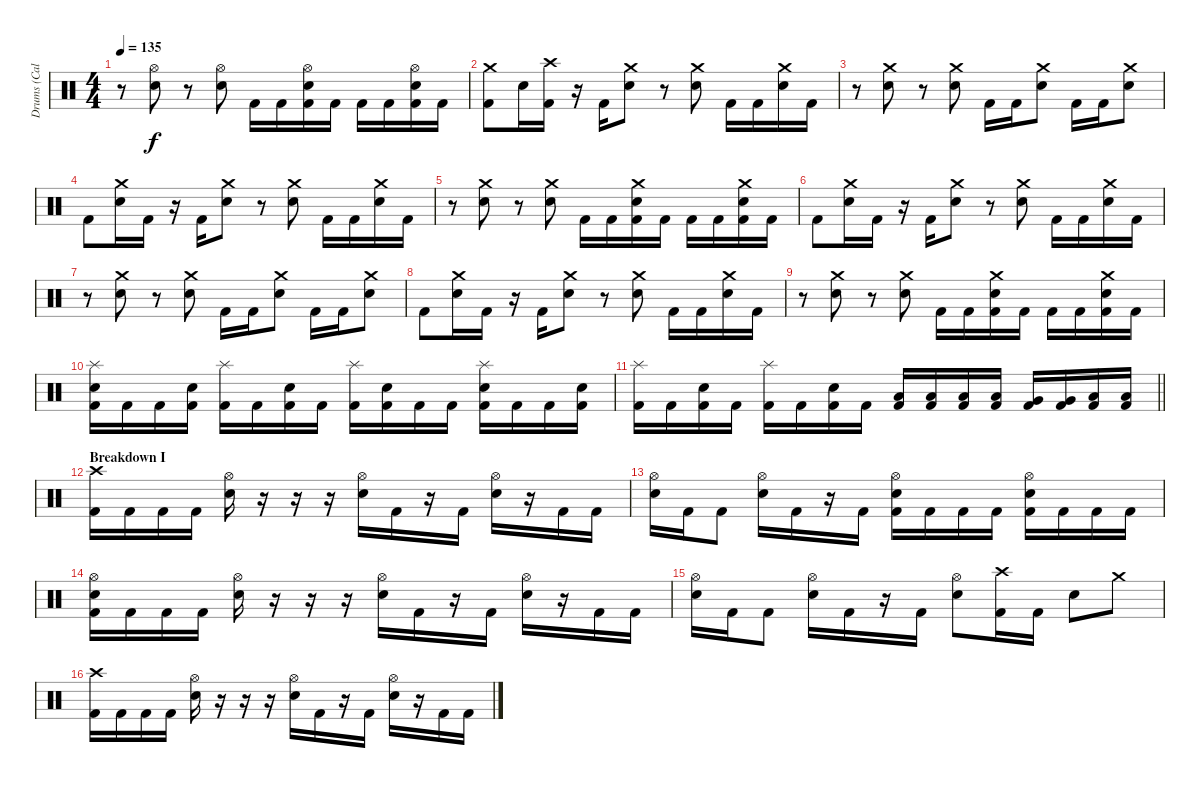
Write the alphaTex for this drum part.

\track ("Drums (Caleb Burton)" "Drums (Cal") {instrument percussion}
\staff {score}
\articulation defaults
\ts (4 4)
\tempo 135
\clef neutral
\ks c
r.8{dy f} ("Hi-Hat (open)" "Electric Snare (hit)").8 r.8 ("Hi-Hat (open)" "Electric Snare (hit)").8 "Kick (hit) 2".16 "Kick (hit) 2".16 ("Hi-Hat (open)" "Electric Snare (hit)" "Kick (hit) 2").16 "Kick (hit) 2".16 "Kick (hit) 2".16 "Kick (hit) 2".16 ("Hi-Hat (open)" "Electric Snare (hit)" "Kick (hit) 2").16 "Kick (hit) 2".16 |
("Crash medium (hit)" "Kick (hit) 2").8 "Electric Snare (hit)".16 ("Crash high (hit)" "Kick (hit) 2").16 r.16 "Kick (hit) 2".16 ("Crash medium (hit)" "Electric Snare (hit)").8 r.8 ("Crash medium (hit)" "Electric Snare (hit)").8 "Kick (hit) 2".16 "Kick (hit) 2".16 ("Crash medium (hit)" "Electric Snare (hit)").16 "Kick (hit) 2".16 |
r.8 ("Crash medium (hit)" "Electric Snare (hit)").8 r.8 ("Crash medium (hit)" "Electric Snare (hit)").8 "Kick (hit) 2".16 "Kick (hit) 2".16 ("Crash medium (hit)" "Electric Snare (hit)").8 "Kick (hit) 2".16 "Kick (hit) 2".16 ("Crash medium (hit)" "Electric Snare (hit)").8 |
"Kick (hit) 2".8 ("Crash medium (hit)" "Electric Snare (hit)").16 "Kick (hit) 2".16 r.16 "Kick (hit) 2".16 ("Crash medium (hit)" "Electric Snare (hit)").8 r.8 ("Crash medium (hit)" "Electric Snare (hit)").8 "Kick (hit) 2".16 "Kick (hit) 2".16 ("Crash medium (hit)" "Electric Snare (hit)").16 "Kick (hit) 2".16 |
r.8 ("Crash medium (hit)" "Electric Snare (hit)").8 r.8 ("Crash medium (hit)" "Electric Snare (hit)").8 "Kick (hit) 2".16 "Kick (hit) 2".16 ("Crash medium (hit)" "Electric Snare (hit)" "Kick (hit) 2").16 "Kick (hit) 2".16 "Kick (hit) 2".16 "Kick (hit) 2".16 ("Crash medium (hit)" "Electric Snare (hit)" "Kick (hit) 2").16 "Kick (hit) 2".16 |
"Kick (hit) 2".8 ("Crash medium (hit)" "Electric Snare (hit)").16 "Kick (hit) 2".16 r.16 "Kick (hit) 2".16 ("Crash medium (hit)" "Electric Snare (hit)").8 r.8 ("Crash medium (hit)" "Electric Snare (hit)").8 "Kick (hit) 2".16 "Kick (hit) 2".16 ("Crash medium (hit)" "Electric Snare (hit)").16 "Kick (hit) 2".16 |
r.8 ("Crash medium (hit)" "Electric Snare (hit)").8 r.8 ("Crash medium (hit)" "Electric Snare (hit)").8 "Kick (hit) 2".16 "Kick (hit) 2".16 ("Crash medium (hit)" "Electric Snare (hit)").8 "Kick (hit) 2".16 "Kick (hit) 2".16 ("Crash medium (hit)" "Electric Snare (hit)").8 |
"Kick (hit) 2".8 ("Crash medium (hit)" "Electric Snare (hit)").16 "Kick (hit) 2".16 r.16 "Kick (hit) 2".16 ("Crash medium (hit)" "Electric Snare (hit)").8 r.8 ("Crash medium (hit)" "Electric Snare (hit)").8 "Kick (hit) 2".16 "Kick (hit) 2".16 ("Crash medium (hit)" "Electric Snare (hit)").16 "Kick (hit) 2".16 |
r.8 ("Crash medium (hit)" "Electric Snare (hit)").8 r.8 ("Crash medium (hit)" "Electric Snare (hit)").8 "Kick (hit) 2".16 "Kick (hit) 2".16 ("Crash medium (hit)" "Electric Snare (hit)" "Kick (hit) 2").16 "Kick (hit) 2".16 "Kick (hit) 2".16 "Kick (hit) 2".16 ("Crash medium (hit)" "Electric Snare (hit)" "Kick (hit) 2").16 "Kick (hit) 2".16 |
("Splash (hit)" "Electric Snare (hit)" "Kick (hit) 2").16 "Kick (hit) 2".16 "Kick (hit) 2".16 ("Electric Snare (hit)" "Kick (hit) 2").16 ("Splash (hit)" "Kick (hit) 2").16 "Kick (hit) 2".16 ("Electric Snare (hit)" "Kick (hit) 2").16 "Kick (hit) 2".16 ("Splash (hit)" "Kick (hit) 2").16 ("Electric Snare (hit)" "Kick (hit) 2").16 "Kick (hit) 2".16 "Kick (hit) 2".16 ("Splash (hit)" "Electric Snare (hit)" "Kick (hit) 2").16 "Kick (hit) 2".16 "Kick (hit) 2".16 ("Electric Snare (hit)" "Kick (hit) 2").16 |
\barLineRight lightlight
("Splash (hit)" "Kick (hit) 2").16 "Kick (hit) 2".16 ("Electric Snare (hit)" "Kick (hit) 2").16 "Kick (hit) 2".16 ("Splash (hit)" "Kick (hit) 2").16 "Kick (hit) 2".16 ("Electric Snare (hit)" "Kick (hit) 2").16 "Kick (hit) 2".16 ("Low Tom (hit)" "Kick (hit) 2").16 ("Low Tom (hit)" "Kick (hit) 2").16 ("Low Floor Tom (hit)" "Kick (hit) 2").16 ("Low Floor Tom (hit)" "Kick (hit) 2").16 ("Very Low Tom (hit)" "Kick (hit) 2").16 ("Very Low Tom (hit)" "Kick (hit) 2").16 ("Low Floor Tom (hit)" "Kick (hit) 2").16 ("Low Floor Tom (hit)" "Kick (hit) 2").16 |
\section ("" "Breakdown I")
("Crash high (hit)" "Kick (hit) 2").16 "Kick (hit) 2".16 "Kick (hit) 2".16 "Kick (hit) 2".16 ("Hi-Hat (open)" "Electric Snare (hit)").16 r.16 r.16 r.16 ("Hi-Hat (open)" "Electric Snare (hit)").16 "Kick (hit) 2".16 r.16 "Kick (hit) 2".16 ("Hi-Hat (open)" "Electric Snare (hit)").16 r.16 "Kick (hit) 2".16 "Kick (hit) 2".16 |
("Hi-Hat (open)" "Electric Snare (hit)").16 "Kick (hit) 2".16 "Kick (hit) 2".8 ("Hi-Hat (open)" "Electric Snare (hit)").16 "Kick (hit) 2".16 r.16 "Kick (hit) 2".16 ("Hi-Hat (open)" "Electric Snare (hit)" "Kick (hit) 2").16 "Kick (hit) 2".16 "Kick (hit) 2".16 "Kick (hit) 2".16 ("Hi-Hat (open)" "Electric Snare (hit)" "Kick (hit) 2").16 "Kick (hit) 2".16 "Kick (hit) 2".16 "Kick (hit) 2".16 |
("Hi-Hat (open)" "Electric Snare (hit)" "Kick (hit) 2").16 "Kick (hit) 2".16 "Kick (hit) 2".16 "Kick (hit) 2".16 ("Hi-Hat (open)" "Electric Snare (hit)").16 r.16 r.16 r.16 ("Hi-Hat (open)" "Electric Snare (hit)").16 "Kick (hit) 2".16 r.16 "Kick (hit) 2".16 ("Hi-Hat (open)" "Electric Snare (hit)").16 r.16 "Kick (hit) 2".16 "Kick (hit) 2".16 |
("Hi-Hat (open)" "Electric Snare (hit)").16 "Kick (hit) 2".16 "Kick (hit) 2".8 ("Hi-Hat (open)" "Electric Snare (hit)").16 "Kick (hit) 2".16 r.16 "Kick (hit) 2".16 ("Hi-Hat (open)" "Electric Snare (hit)").8 ("Crash high (hit)" "Kick (hit) 2").16 "Kick (hit) 2".16 "Electric Snare (hit)".8 "Crash medium (hit)".8 |
("Crash high (hit)" "Kick (hit) 2").16 "Kick (hit) 2".16 "Kick (hit) 2".16 "Kick (hit) 2".16 ("Hi-Hat (open)" "Electric Snare (hit)").16 r.16 r.16 r.16 ("Hi-Hat (open)" "Electric Snare (hit)").16 "Kick (hit) 2".16 r.16 "Kick (hit) 2".16 ("Hi-Hat (open)" "Electric Snare (hit)").16 r.16 "Kick (hit) 2".16 "Kick (hit) 2".16
